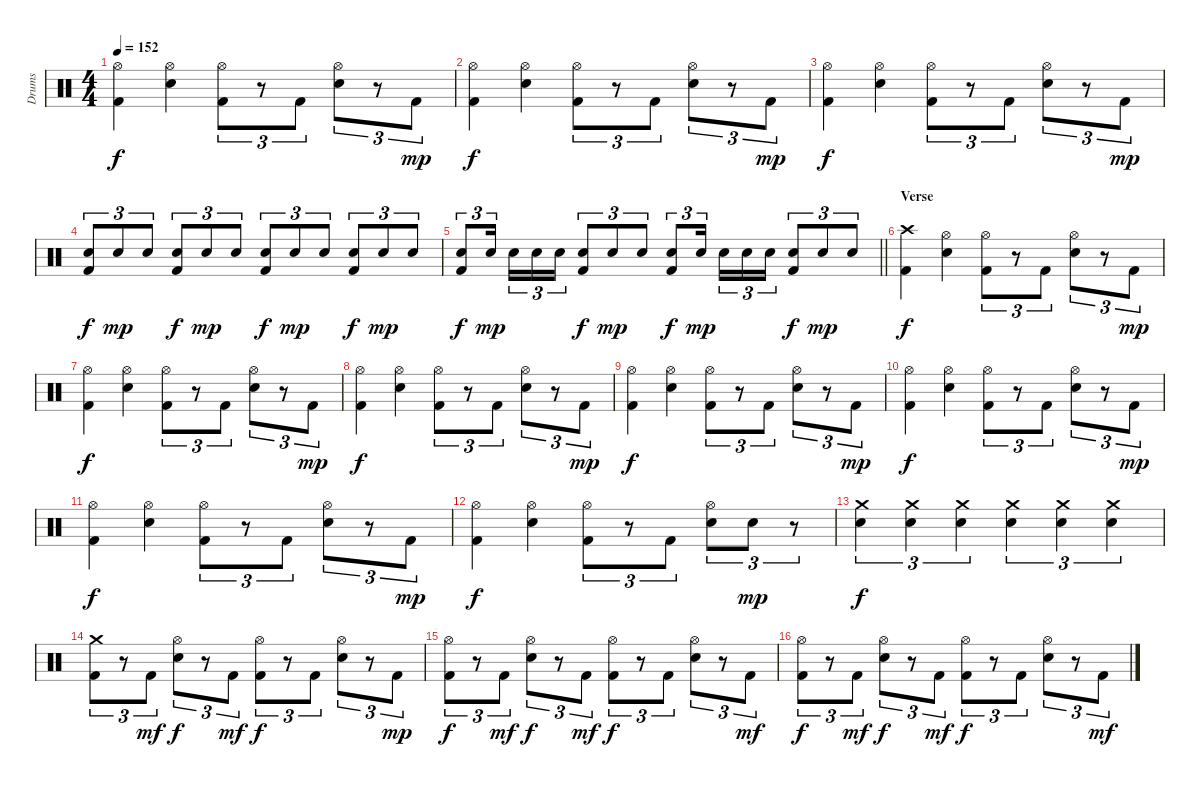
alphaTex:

\track ("Drums" "Drums") {instrument percussion}
\staff {score}
\articulation defaults
\ts (4 4)
\tempo 152
\clef neutral
\ks c
("Hi-Hat (open)" "Kick (hit) 2").4{dy f} ("Hi-Hat (open)" "Snare (hit) 2").4 ("Hi-Hat (open)" "Kick (hit) 2").8{tu (3 2)} r.8{tu (3 2)} "Kick (hit) 2".8{tu (3 2)} ("Hi-Hat (open)" "Snare (hit) 2").8{tu (3 2)} r.8{tu (3 2)} "Kick (hit) 2".8{tu (3 2) dy mp} |
("Hi-Hat (open)" "Kick (hit) 2").4{dy f} ("Hi-Hat (open)" "Snare (hit) 2").4 ("Hi-Hat (open)" "Kick (hit) 2").8{tu (3 2)} r.8{tu (3 2)} "Kick (hit) 2".8{tu (3 2)} ("Hi-Hat (open)" "Snare (hit) 2").8{tu (3 2)} r.8{tu (3 2)} "Kick (hit) 2".8{tu (3 2) dy mp} |
("Hi-Hat (open)" "Kick (hit) 2").4{dy f} ("Hi-Hat (open)" "Snare (hit) 2").4 ("Hi-Hat (open)" "Kick (hit) 2").8{tu (3 2)} r.8{tu (3 2)} "Kick (hit) 2".8{tu (3 2)} ("Hi-Hat (open)" "Snare (hit) 2").8{tu (3 2)} r.8{tu (3 2)} "Kick (hit) 2".8{tu (3 2) dy mp} |
("Kick (hit) 2" "Snare (hit) 2").8{tu (3 2) dy f volume 14} "Snare (hit) 2".8{tu (3 2) dy mp} "Snare (hit) 2".8{tu (3 2)} ("Kick (hit) 2" "Snare (hit) 2").8{tu (3 2) dy f} "Snare (hit) 2".8{tu (3 2) dy mp} "Snare (hit) 2".8{tu (3 2)} ("Kick (hit) 2" "Snare (hit) 2").8{tu (3 2) dy f} "Snare (hit) 2".8{tu (3 2) dy mp} "Snare (hit) 2".8{tu (3 2)} ("Kick (hit) 2" "Snare (hit) 2").8{tu (3 2) dy f} "Snare (hit) 2".8{tu (3 2) dy mp} "Snare (hit) 2".8{tu (3 2)} |
\barLineRight lightlight
("Kick (hit) 2" "Snare (hit) 2").8{tu (3 2) dy f} "Snare (hit) 2".16{tu (3 2) dy mp beam splitsecondary} "Snare (hit) 2".16{tu (3 2)} "Snare (hit) 2".16{tu (3 2)} "Snare (hit) 2".16{tu (3 2)} ("Kick (hit) 2" "Snare (hit) 2").8{tu (3 2) dy f} "Snare (hit) 2".8{tu (3 2) dy mp} "Snare (hit) 2".8{tu (3 2)} ("Kick (hit) 2" "Snare (hit) 2").8{tu (3 2) dy f} "Snare (hit) 2".16{tu (3 2) dy mp beam splitsecondary} "Snare (hit) 2".16{tu (3 2)} "Snare (hit) 2".16{tu (3 2)} "Snare (hit) 2".16{tu (3 2)} ("Kick (hit) 2" "Snare (hit) 2").8{tu (3 2) dy f} "Snare (hit) 2".8{tu (3 2) dy mp} "Snare (hit) 2".8{tu (3 2)} |
\section ("" "Verse")
("Crash high (hit)" "Kick (hit) 2").4{dy f volume 12} ("Hi-Hat (open)" "Snare (hit) 2").4 ("Hi-Hat (open)" "Kick (hit) 2").8{tu (3 2)} r.8{tu (3 2)} "Kick (hit) 2".8{tu (3 2)} ("Hi-Hat (open)" "Snare (hit) 2").8{tu (3 2)} r.8{tu (3 2)} "Kick (hit) 2".8{tu (3 2) dy mp} |
("Hi-Hat (open)" "Kick (hit) 2").4{dy f} ("Hi-Hat (open)" "Snare (hit) 2").4 ("Hi-Hat (open)" "Kick (hit) 2").8{tu (3 2)} r.8{tu (3 2)} "Kick (hit) 2".8{tu (3 2)} ("Hi-Hat (open)" "Snare (hit) 2").8{tu (3 2)} r.8{tu (3 2)} "Kick (hit) 2".8{tu (3 2) dy mp} |
("Hi-Hat (open)" "Kick (hit) 2").4{dy f} ("Hi-Hat (open)" "Snare (hit) 2").4 ("Hi-Hat (open)" "Kick (hit) 2").8{tu (3 2)} r.8{tu (3 2)} "Kick (hit) 2".8{tu (3 2)} ("Hi-Hat (open)" "Snare (hit) 2").8{tu (3 2)} r.8{tu (3 2)} "Kick (hit) 2".8{tu (3 2) dy mp} |
("Hi-Hat (open)" "Kick (hit) 2").4{dy f} ("Hi-Hat (open)" "Snare (hit) 2").4 ("Hi-Hat (open)" "Kick (hit) 2").8{tu (3 2)} r.8{tu (3 2)} "Kick (hit) 2".8{tu (3 2)} ("Hi-Hat (open)" "Snare (hit) 2").8{tu (3 2)} r.8{tu (3 2)} "Kick (hit) 2".8{tu (3 2) dy mp} |
("Hi-Hat (open)" "Kick (hit) 2").4{dy f} ("Hi-Hat (open)" "Snare (hit) 2").4 ("Hi-Hat (open)" "Kick (hit) 2").8{tu (3 2)} r.8{tu (3 2)} "Kick (hit) 2".8{tu (3 2)} ("Hi-Hat (open)" "Snare (hit) 2").8{tu (3 2)} r.8{tu (3 2)} "Kick (hit) 2".8{tu (3 2) dy mp} |
("Hi-Hat (open)" "Kick (hit) 2").4{dy f} ("Hi-Hat (open)" "Snare (hit) 2").4 ("Hi-Hat (open)" "Kick (hit) 2").8{tu (3 2)} r.8{tu (3 2)} "Kick (hit) 2".8{tu (3 2)} ("Hi-Hat (open)" "Snare (hit) 2").8{tu (3 2)} r.8{tu (3 2)} "Kick (hit) 2".8{tu (3 2) dy mp} |
("Hi-Hat (open)" "Kick (hit) 2").4{dy f} ("Hi-Hat (open)" "Snare (hit) 2").4 ("Hi-Hat (open)" "Kick (hit) 2").8{tu (3 2)} r.8{tu (3 2)} "Kick (hit) 2".8{tu (3 2)} ("Hi-Hat (open)" "Snare (hit) 2").8{tu (3 2)} "Snare (hit) 2".8{tu (3 2) dy mp} r.8{tu (3 2)} |
("Crash medium (hit)" "Snare (hit) 2").4{tu (3 2) dy f} ("Crash medium (hit)" "Snare (hit) 2").4{tu (3 2)} ("Crash medium (hit)" "Snare (hit) 2").4{tu (3 2)} ("Crash medium (hit)" "Snare (hit) 2").4{tu (3 2)} ("Crash medium (hit)" "Snare (hit) 2").4{tu (3 2)} ("Crash medium (hit)" "Snare (hit) 2").4{tu (3 2)} |
("Crash medium (hit)" "Kick (hit) 2").8{tu (3 2) volume 12} r.8{tu (3 2)} "Kick (hit) 2".8{tu (3 2) dy mf} ("Hi-Hat (open)" "Snare (hit) 2").8{tu (3 2) dy f} r.8{tu (3 2)} "Kick (hit) 2".8{tu (3 2) dy mf} ("Hi-Hat (open)" "Kick (hit) 2").8{tu (3 2) dy f} r.8{tu (3 2)} "Kick (hit) 2".8{tu (3 2)} ("Hi-Hat (open)" "Snare (hit) 2").8{tu (3 2)} r.8{tu (3 2)} "Kick (hit) 2".8{tu (3 2) dy mp} |
("Hi-Hat (open)" "Kick (hit) 2").8{tu (3 2) dy f} r.8{tu (3 2)} "Kick (hit) 2".8{tu (3 2) dy mf} ("Hi-Hat (open)" "Snare (hit) 2").8{tu (3 2) dy f} r.8{tu (3 2)} "Kick (hit) 2".8{tu (3 2) dy mf} ("Hi-Hat (open)" "Kick (hit) 2").8{tu (3 2) dy f} r.8{tu (3 2)} "Kick (hit) 2".8{tu (3 2)} ("Hi-Hat (open)" "Snare (hit) 2").8{tu (3 2)} r.8{tu (3 2)} "Kick (hit) 2".8{tu (3 2) dy mf} |
("Hi-Hat (open)" "Kick (hit) 2").8{tu (3 2) dy f} r.8{tu (3 2)} "Kick (hit) 2".8{tu (3 2) dy mf} ("Hi-Hat (open)" "Snare (hit) 2").8{tu (3 2) dy f} r.8{tu (3 2)} "Kick (hit) 2".8{tu (3 2) dy mf} ("Hi-Hat (open)" "Kick (hit) 2").8{tu (3 2) dy f} r.8{tu (3 2)} "Kick (hit) 2".8{tu (3 2)} ("Hi-Hat (open)" "Snare (hit) 2").8{tu (3 2)} r.8{tu (3 2)} "Kick (hit) 2".8{tu (3 2) dy mf}
